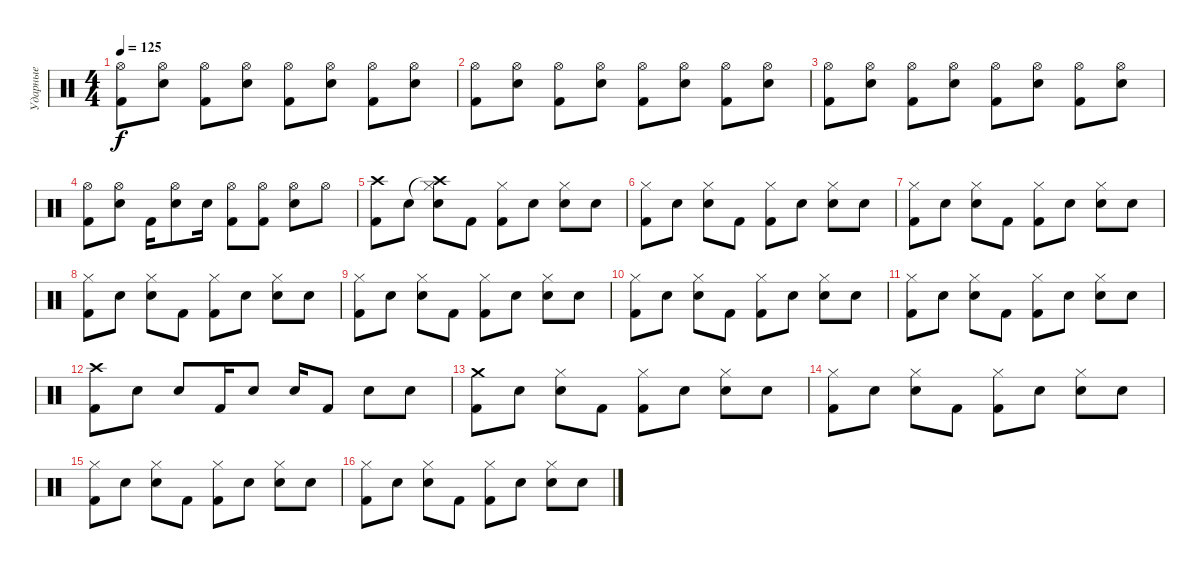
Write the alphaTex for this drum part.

\track ("Ударные" "Ударные") {instrument percussion}
\staff {score}
\articulation defaults
\ts (4 4)
\tempo 125
\clef neutral
\ks c
("Hi-Hat (open)" "Kick (hit) 2").8{dy f} ("Hi-Hat (open)" "Snare (hit) 2").8 ("Hi-Hat (open)" "Kick (hit) 2").8 ("Hi-Hat (open)" "Snare (hit) 2").8 ("Hi-Hat (open)" "Kick (hit) 2").8 ("Hi-Hat (open)" "Snare (hit) 2").8 ("Hi-Hat (open)" "Kick (hit) 2").8 ("Hi-Hat (open)" "Snare (hit) 2").8 |
("Hi-Hat (open)" "Kick (hit) 2").8 ("Hi-Hat (open)" "Snare (hit) 2").8 ("Hi-Hat (open)" "Kick (hit) 2").8 ("Hi-Hat (open)" "Snare (hit) 2").8 ("Hi-Hat (open)" "Kick (hit) 2").8 ("Hi-Hat (open)" "Snare (hit) 2").8 ("Hi-Hat (open)" "Kick (hit) 2").8 ("Hi-Hat (open)" "Snare (hit) 2").8 |
("Hi-Hat (open)" "Kick (hit) 2").8 ("Hi-Hat (open)" "Snare (hit) 2").8 ("Hi-Hat (open)" "Kick (hit) 2").8 ("Hi-Hat (open)" "Snare (hit) 2").8 ("Hi-Hat (open)" "Kick (hit) 2").8 ("Hi-Hat (open)" "Snare (hit) 2").8 ("Hi-Hat (open)" "Kick (hit) 2").8 ("Hi-Hat (open)" "Snare (hit) 2").8 |
("Hi-Hat (open)" "Kick (hit) 2").8 ("Hi-Hat (open)" "Snare (hit) 2").8 "Kick (hit) 2".16 ("Hi-Hat (open)" "Snare (hit) 2").8 "Snare (hit) 2".16 ("Hi-Hat (open)" "Kick (hit) 2").8 ("Hi-Hat (open)" "Kick (hit) 2").8 ("Hi-Hat (open)" "Snare (hit) 2").8 "Hi-Hat (open)".8 |
("Crash high (hit)" "Kick (hit) 2").8 "Snare (hit)".8 ("Crash high (hit)"{t} "Hi-Hat (closed)" "Snare (hit) 2").8 "Kick (hit) 2".8 ("Hi-Hat (closed)" "Kick (hit) 2").8 "Snare (hit)".8 ("Hi-Hat (closed)" "Snare (hit) 2").8 "Snare (hit)".8 |
("Hi-Hat (closed)" "Kick (hit) 2").8 "Snare (hit)".8 ("Hi-Hat (closed)" "Snare (hit) 2").8 "Kick (hit) 2".8 ("Hi-Hat (closed)" "Kick (hit) 2").8 "Snare (hit)".8 ("Hi-Hat (closed)" "Snare (hit) 2").8 "Snare (hit)".8 |
("Hi-Hat (closed)" "Kick (hit) 2").8 "Snare (hit)".8 ("Hi-Hat (closed)" "Snare (hit) 2").8 "Kick (hit) 2".8 ("Hi-Hat (closed)" "Kick (hit) 2").8 "Snare (hit)".8 ("Hi-Hat (closed)" "Snare (hit) 2").8 "Snare (hit)".8 |
("Hi-Hat (closed)" "Kick (hit) 2").8 "Snare (hit)".8 ("Hi-Hat (closed)" "Snare (hit) 2").8 "Kick (hit) 2".8 ("Hi-Hat (closed)" "Kick (hit) 2").8 "Snare (hit)".8 ("Hi-Hat (closed)" "Snare (hit) 2").8 "Snare (hit)".8 |
("Hi-Hat (closed)" "Kick (hit) 2").8 "Snare (hit)".8 ("Hi-Hat (closed)" "Snare (hit) 2").8 "Kick (hit) 2".8 ("Hi-Hat (closed)" "Kick (hit) 2").8 "Snare (hit)".8 ("Hi-Hat (closed)" "Snare (hit) 2").8 "Snare (hit)".8 |
("Hi-Hat (closed)" "Kick (hit) 2").8 "Snare (hit)".8 ("Hi-Hat (closed)" "Snare (hit) 2").8 "Kick (hit) 2".8 ("Hi-Hat (closed)" "Kick (hit) 2").8 "Snare (hit)".8 ("Hi-Hat (closed)" "Snare (hit) 2").8 "Snare (hit)".8 |
("Hi-Hat (closed)" "Kick (hit) 2").8 "Snare (hit)".8 ("Hi-Hat (closed)" "Snare (hit) 2").8 "Kick (hit) 2".8 ("Hi-Hat (closed)" "Kick (hit) 2").8 "Snare (hit)".8 ("Hi-Hat (closed)" "Snare (hit) 2").8 "Snare (hit)".8 |
("Crash high (hit)" "Kick (hit) 2").8 "Snare (hit)".8 "Snare (hit) 2".8 "Kick (hit) 2".16 "Snare (hit) 2".8 "Snare (hit) 2".16 "Kick (hit) 2".8 "Snare (hit) 2".8 "Snare (hit)".8 |
("Crash medium (hit)" "Kick (hit) 2").8 "Snare (hit)".8 ("Hi-Hat (closed)" "Snare (hit) 2").8 "Kick (hit) 2".8 ("Hi-Hat (closed)" "Kick (hit) 2").8 "Snare (hit)".8 ("Hi-Hat (closed)" "Snare (hit) 2").8 "Snare (hit)".8 |
("Hi-Hat (closed)" "Kick (hit) 2").8 "Snare (hit)".8 ("Hi-Hat (closed)" "Snare (hit) 2").8 "Kick (hit) 2".8 ("Hi-Hat (closed)" "Kick (hit) 2").8 "Snare (hit)".8 ("Hi-Hat (closed)" "Snare (hit) 2").8 "Snare (hit)".8 |
("Hi-Hat (closed)" "Kick (hit) 2").8 "Snare (hit)".8 ("Hi-Hat (closed)" "Snare (hit) 2").8 "Kick (hit) 2".8 ("Hi-Hat (closed)" "Kick (hit) 2").8 "Snare (hit)".8 ("Hi-Hat (closed)" "Snare (hit) 2").8 "Snare (hit)".8 |
("Hi-Hat (closed)" "Kick (hit) 2").8 "Snare (hit)".8 ("Hi-Hat (closed)" "Snare (hit) 2").8 "Kick (hit) 2".8 ("Hi-Hat (closed)" "Kick (hit) 2").8 "Snare (hit)".8 ("Hi-Hat (closed)" "Snare (hit) 2").8 "Snare (hit)".8
